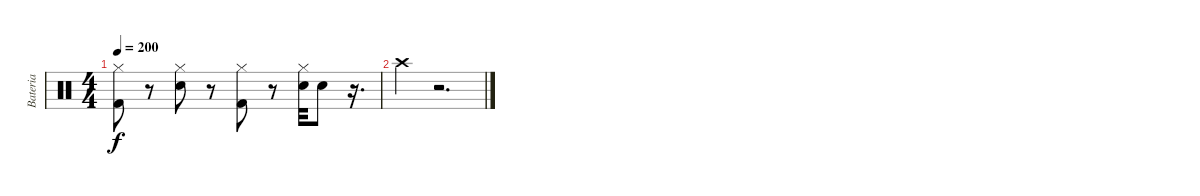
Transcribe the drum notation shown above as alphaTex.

\track ("Bateria" "Bateria") {instrument percussion}
\staff {score}
\articulation defaults
\ts (4 4)
\tempo 200
\clef neutral
\ks c
("Hi-Hat (closed)" "Kick (hit) 2").8{dy f} r.8 ("Hi-Hat (closed)" "Snare (hit) 2").8 r.8 ("Hi-Hat (closed)" "Kick (hit) 2").8 r.8 ("Hi-Hat (closed)" "Snare (hit) 2").32 "Snare (hit) 2".8 r.16{d} |
"Crash high (hit)".4 r.2{d}
